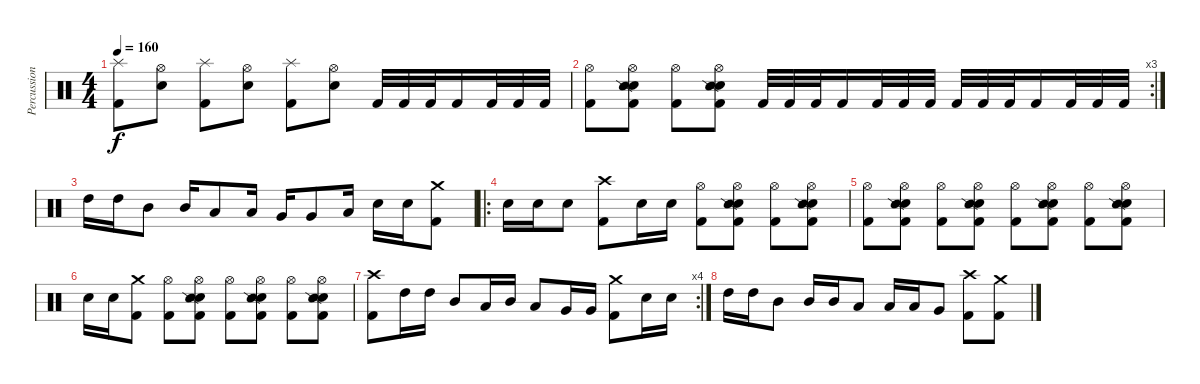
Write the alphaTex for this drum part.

\track ("Percussion" "Percussion") {instrument percussion}
\staff {score}
\articulation defaults
\ts (4 4)
\tempo 160
\clef neutral
\ks c
("Splash (hit)" "Kick (hit) 2").8{dy f} ("Hi-Hat (open)" "Electric Snare (hit)").8 ("Splash (hit)" "Kick (hit) 2").8 ("Hi-Hat (open)" "Electric Snare (hit)").8 ("Splash (hit)" "Kick (hit) 2").8 ("Hi-Hat (open)" "Electric Snare (hit)").8 "Kick (hit) 2".32 "Kick (hit) 2".32 "Kick (hit) 2".32 "Kick (hit) 2".16 "Kick (hit) 2".32 "Kick (hit) 2".32 "Kick (hit) 2".32 |
\rc 3
("Hi-Hat (open)" "Kick (hit) 2").8 ("Hi-Hat (open)" "Electric Snare (hit)" "Snare (side stick) 2" "Kick (hit) 2").8 ("Hi-Hat (open)" "Kick (hit) 2").8 ("Hi-Hat (open)" "Electric Snare (hit)" "Snare (side stick) 2" "Kick (hit) 2").8 "Kick (hit) 2".32 "Kick (hit) 2".32 "Kick (hit) 2".32 "Kick (hit) 2".16 "Kick (hit) 2".32 "Kick (hit) 2".32 "Kick (hit) 2".32 "Kick (hit) 2".32 "Kick (hit) 2".32 "Kick (hit) 2".32 "Kick (hit) 2".16 "Kick (hit) 2".32 "Kick (hit) 2".32 "Kick (hit) 2".32 |
"High Tom (hit)".16 "High Tom (hit)".16 "Mid Tom (hit)".8 "Mid Tom (hit)".16 "Low Tom (hit)".8 "Low Tom (hit)".16 "Very Low Tom (hit)".16 "Very Low Tom (hit)".8 "Low Floor Tom (hit)".16 "Electric Snare (hit)".16 "Electric Snare (hit)".16 ("Crash medium (hit)" "Kick (hit) 2").8 |
\ro "Electric Snare (hit)".16 "Electric Snare (hit)".16 "Electric Snare (hit)".8
("Crash high (hit)" "Kick (hit) 2").8 "Electric Snare (hit)".16 "Electric Snare (hit)".16 ("Hi-Hat (open)" "Kick (hit) 2").8 ("Hi-Hat (open)" "Electric Snare (hit)" "Snare (side stick) 2" "Kick (hit) 2").8 ("Hi-Hat (open)" "Kick (hit) 2").8 ("Hi-Hat (open)" "Electric Snare (hit)" "Snare (side stick) 2" "Kick (hit) 2").8 |
("Hi-Hat (open)" "Kick (hit) 2").8 ("Hi-Hat (open)" "Electric Snare (hit)" "Snare (side stick) 2" "Kick (hit) 2").8 ("Hi-Hat (open)" "Kick (hit) 2").8 ("Hi-Hat (open)" "Electric Snare (hit)" "Snare (side stick) 2" "Kick (hit) 2").8 ("Hi-Hat (open)" "Kick (hit) 2").8 ("Hi-Hat (open)" "Electric Snare (hit)" "Snare (side stick) 2" "Kick (hit) 2").8 ("Hi-Hat (open)" "Kick (hit) 2").8 ("Hi-Hat (open)" "Electric Snare (hit)" "Snare (side stick) 2" "Kick (hit) 2").8 |
"Electric Snare (hit)".16 "Electric Snare (hit)".16 ("Crash medium (hit)" "Kick (hit) 2").8 ("Hi-Hat (open)" "Kick (hit) 2").8 ("Hi-Hat (open)" "Electric Snare (hit)" "Snare (side stick) 2" "Kick (hit) 2").8 ("Hi-Hat (open)" "Kick (hit) 2").8 ("Hi-Hat (open)" "Electric Snare (hit)" "Snare (side stick) 2" "Kick (hit) 2").8 ("Hi-Hat (open)" "Kick (hit) 2").8 ("Hi-Hat (open)" "Electric Snare (hit)" "Snare (side stick) 2" "Kick (hit) 2").8 |
\rc 4
("Crash high (hit)" "Kick (hit) 2").8 "High Tom (hit)".16 "High Tom (hit)".16 "Mid Tom (hit)".8 "Low Tom (hit)".16 "Mid Tom (hit)".16 "Low Tom (hit)".8 "Very Low Tom (hit)".16 "Very Low Tom (hit)".16 ("Crash medium (hit)" "Kick (hit) 2").8 "Electric Snare (hit)".16 "Electric Snare (hit)".16 |
"High Tom (hit)".16 "High Tom (hit)".16 "Mid Tom (hit)".8 "Mid Tom (hit)".16 "Mid Tom (hit)".16 "Low Tom (hit)".8 "Low Tom (hit)".16 "Low Tom (hit)".16 "Very Low Tom (hit)".8 ("Crash high (hit)" "Kick (hit) 2").8 ("Crash medium (hit)" "Kick (hit) 2").8
